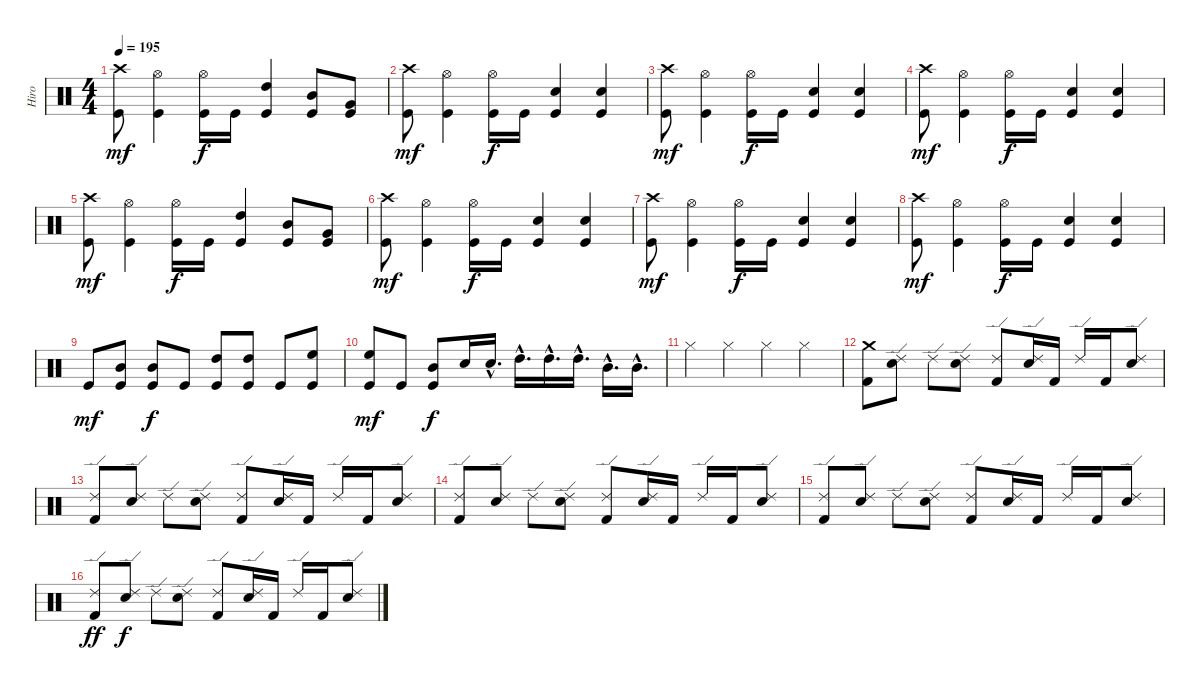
\track ("Hiro" "Hiro") {instrument percussion}
\staff {score}
\articulation defaults
\ts (4 4)
\tempo 195
\clef neutral
\ks c
("Crash high (hit)" "Kick (hit)").8{dy mf} ("Hi-Hat (open)" "Kick (hit)").4 ("Kick (hit)" "Hi-Hat (open)").16{dy f} "Kick (hit)".16 ("Kick (hit)" "High Tom (hit)").4 ("Kick (hit)" "Mid Tom (hit)").8 ("Kick (hit)" "Very Low Tom (hit)").8 |
("Crash high (hit)" "Kick (hit)").8{dy mf} ("Hi-Hat (open)" "Kick (hit)").4 ("Kick (hit)" "Hi-Hat (open)").16{dy f} "Kick (hit)".16 ("Kick (hit)" "Electric Snare (hit)").4 ("Kick (hit)" "Electric Snare (hit)").4 |
("Crash high (hit)" "Kick (hit)").8{dy mf} ("Hi-Hat (open)" "Kick (hit)").4 ("Kick (hit)" "Hi-Hat (open)").16{dy f} "Kick (hit)".16 ("Kick (hit)" "Electric Snare (hit)").4 ("Kick (hit)" "Electric Snare (hit)").4 |
("Crash high (hit)" "Kick (hit)").8{dy mf} ("Hi-Hat (open)" "Kick (hit)").4 ("Kick (hit)" "Hi-Hat (open)").16{dy f} "Kick (hit)".16 ("Kick (hit)" "Electric Snare (hit)").4 ("Kick (hit)" "Electric Snare (hit)").4 |
("Crash high (hit)" "Kick (hit)").8{dy mf} ("Hi-Hat (open)" "Kick (hit)").4 ("Kick (hit)" "Hi-Hat (open)").16{dy f} "Kick (hit)".16 ("Kick (hit)" "High Tom (hit)").4 ("Kick (hit)" "Mid Tom (hit)").8 ("Kick (hit)" "Very Low Tom (hit)").8 |
("Crash high (hit)" "Kick (hit)").8{dy mf} ("Hi-Hat (open)" "Kick (hit)").4 ("Kick (hit)" "Hi-Hat (open)").16{dy f} "Kick (hit)".16 ("Kick (hit)" "Electric Snare (hit)").4 ("Kick (hit)" "Electric Snare (hit)").4 |
("Crash high (hit)" "Kick (hit)").8{dy mf} ("Hi-Hat (open)" "Kick (hit)").4 ("Kick (hit)" "Hi-Hat (open)").16{dy f} "Kick (hit)".16 ("Kick (hit)" "Electric Snare (hit)").4 ("Kick (hit)" "Electric Snare (hit)").4 |
("Crash high (hit)" "Kick (hit)").8{dy mf} ("Hi-Hat (open)" "Kick (hit)").4 ("Kick (hit)" "Hi-Hat (open)").16{dy f} "Kick (hit)".16 ("Kick (hit)" "Electric Snare (hit)").4 ("Kick (hit)" "Electric Snare (hit)").4 |
"Kick (hit)".8{dy mf} ("Kick (hit)" "Mid Tom (hit)").8 ("Kick (hit)" "Mid Tom (hit)").8{dy f} "Kick (hit)".8 ("Kick (hit)" "High Tom (hit)").8 ("Kick (hit)" "High Tom (hit)").8 "Kick (hit)".8 ("Kick (hit)" "High Floor Tom (hit)").8 |
("Kick (hit)" "High Floor Tom (hit)").8{dy mf} "Kick (hit)".8 ("Kick (hit)" "Mid Tom (hit)").8{dy f} "Snare (hit) 2".16 "Snare (hit) 2"{hac}.16{d} "High Tom (hit)"{hac}.16{d} "High Tom (hit)"{hac}.16{d} "High Tom (hit)"{hac}.16{d} "Mid Tom (hit)"{hac}.16{d} "Mid Tom (hit)"{hac}.16{d} |
"Hi-Hat (closed)".4 "Hi-Hat (closed)".4 "Hi-Hat (closed)".4 "Hi-Hat (closed)".4 |
("Kick (hit) 2" "Crash medium (hit)").8 ("Snare (hit) 2" "Ride (edge) 2").8 "Ride (edge) 2".8 ("Snare (hit) 2" "Ride (edge) 2").8 ("Kick (hit) 2" "Ride (edge) 2").8 ("Snare (hit) 2" "Ride (edge) 2").16 "Kick (hit) 2".16 "Ride (edge) 2".16 "Kick (hit) 2".16 ("Snare (hit) 2" "Ride (edge) 2").8 |
("Kick (hit) 2" "Ride (edge) 2").8 ("Snare (hit) 2" "Ride (edge) 2").8 "Ride (edge) 2".8 ("Snare (hit) 2" "Ride (edge) 2").8 ("Kick (hit) 2" "Ride (edge) 2").8 ("Snare (hit) 2" "Ride (edge) 2").16 "Kick (hit) 2".16 "Ride (edge) 2".16 "Kick (hit) 2".16 ("Snare (hit) 2" "Ride (edge) 2").8 |
("Kick (hit) 2" "Ride (edge) 2").8 ("Snare (hit) 2" "Ride (edge) 2").8 "Ride (edge) 2".8 ("Snare (hit) 2" "Ride (edge) 2").8 ("Kick (hit) 2" "Ride (edge) 2").8 ("Snare (hit) 2" "Ride (edge) 2").16 "Kick (hit) 2".16 "Ride (edge) 2".16 "Kick (hit) 2".16 ("Snare (hit) 2" "Ride (edge) 2").8 |
("Kick (hit) 2" "Ride (edge) 2").8 ("Snare (hit) 2" "Ride (edge) 2").8 "Ride (edge) 2".8 ("Snare (hit) 2" "Ride (edge) 2").8 ("Kick (hit) 2" "Ride (edge) 2").8 ("Snare (hit) 2" "Ride (edge) 2").16 "Kick (hit) 2".16 "Ride (edge) 2".16 "Kick (hit) 2".16 ("Snare (hit) 2" "Ride (edge) 2").8 |
("Kick (hit) 2" "Ride (edge) 2").8{dy ff} ("Snare (hit) 2" "Ride (edge) 2").8{dy f} "Ride (edge) 2".8 ("Snare (hit) 2" "Ride (edge) 2").8 ("Kick (hit) 2" "Ride (edge) 2").8 ("Snare (hit) 2" "Ride (edge) 2").16 "Kick (hit) 2".16 "Ride (edge) 2".16 "Kick (hit) 2".16 ("Snare (hit) 2" "Ride (edge) 2").8
